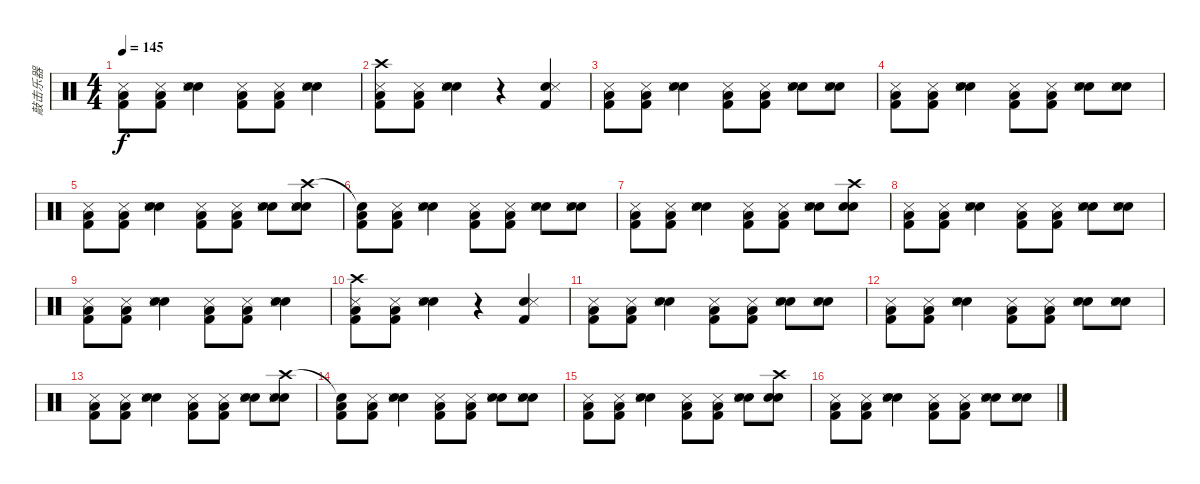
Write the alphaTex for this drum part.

\track ("敲击乐器" "敲击乐器") {instrument percussion}
\staff {score}
\articulation defaults
\ts (4 4)
\tempo 145
\clef neutral
\ks c
("Low Floor Tom (hit)" "Kick (hit) 2" "Snare (side stick) 3").8{dy f} ("Low Floor Tom (hit)" "Kick (hit) 2" "Snare (side stick) 3").8 ("Snare (hit) 2" "Electric Snare (hit)" "Snare (side stick) 3").4 ("Low Floor Tom (hit)" "Kick (hit) 2" "Snare (side stick) 3").8 ("Low Floor Tom (hit)" "Kick (hit) 2" "Snare (side stick) 3").8 ("Snare (hit) 2" "Electric Snare (hit)" "Snare (side stick) 3").4 |
("Low Floor Tom (hit)" "Kick (hit) 2" "Snare (side stick) 3" "Crash high (hit)").8 ("Low Floor Tom (hit)" "Kick (hit) 2" "Snare (side stick) 3").8 ("Snare (hit) 2" "Electric Snare (hit)" "Snare (side stick) 3").4 r.4 ("Kick (hit) 2" "Electric Snare (hit)" "Snare (side stick) 3").4 |
("Low Floor Tom (hit)" "Kick (hit) 2" "Snare (side stick) 3").8 ("Low Floor Tom (hit)" "Kick (hit) 2" "Snare (side stick) 3").8 ("Snare (hit) 2" "Electric Snare (hit)" "Snare (side stick) 3").4 ("Low Floor Tom (hit)" "Kick (hit) 2" "Snare (side stick) 3").8 ("Low Floor Tom (hit)" "Kick (hit) 2" "Snare (side stick) 3").8 ("Snare (hit) 2" "Electric Snare (hit)" "Snare (side stick) 3").8 ("Snare (hit) 2" "Electric Snare (hit)" "Snare (side stick) 3").8 |
("Low Floor Tom (hit)" "Kick (hit) 2" "Snare (side stick) 3").8 ("Low Floor Tom (hit)" "Kick (hit) 2" "Snare (side stick) 3").8 ("Snare (hit) 2" "Electric Snare (hit)" "Snare (side stick) 3").4 ("Low Floor Tom (hit)" "Kick (hit) 2" "Snare (side stick) 3").8 ("Low Floor Tom (hit)" "Kick (hit) 2" "Snare (side stick) 3").8 ("Snare (hit) 2" "Electric Snare (hit)" "Snare (side stick) 3").8 ("Snare (hit) 2" "Electric Snare (hit)" "Snare (side stick) 3").8 |
("Low Floor Tom (hit)" "Kick (hit) 2" "Snare (side stick) 3").8 ("Low Floor Tom (hit)" "Kick (hit) 2" "Snare (side stick) 3").8 ("Snare (hit) 2" "Electric Snare (hit)" "Snare (side stick) 3").4 ("Low Floor Tom (hit)" "Kick (hit) 2" "Snare (side stick) 3").8 ("Low Floor Tom (hit)" "Kick (hit) 2" "Snare (side stick) 3").8 ("Snare (hit) 2" "Electric Snare (hit)" "Snare (side stick) 3").8 ("Snare (hit) 2" "Snare (side stick) 3" "Crash high (hit)" "Electric Snare (hit)").8 |
("Low Floor Tom (hit)" "Kick (hit) 2" "Snare (hit)"{t}).8 ("Low Floor Tom (hit)" "Kick (hit) 2" "Snare (side stick) 3").8 ("Snare (hit) 2" "Electric Snare (hit)" "Snare (side stick) 3").4 ("Low Floor Tom (hit)" "Kick (hit) 2" "Snare (side stick) 3").8 ("Low Floor Tom (hit)" "Kick (hit) 2" "Snare (side stick) 3").8 ("Snare (hit) 2" "Electric Snare (hit)" "Snare (side stick) 3").8 ("Snare (hit) 2" "Electric Snare (hit)" "Snare (side stick) 3").8 |
("Low Floor Tom (hit)" "Kick (hit) 2" "Snare (side stick) 3").8 ("Low Floor Tom (hit)" "Kick (hit) 2" "Snare (side stick) 3").8 ("Snare (hit) 2" "Electric Snare (hit)" "Snare (side stick) 3").4 ("Low Floor Tom (hit)" "Kick (hit) 2" "Snare (side stick) 3").8 ("Low Floor Tom (hit)" "Kick (hit) 2" "Snare (side stick) 3").8 ("Snare (hit) 2" "Electric Snare (hit)" "Snare (side stick) 3").8 ("Snare (hit) 2" "Electric Snare (hit)" "Crash high (hit)").8 |
("Low Floor Tom (hit)" "Kick (hit) 2" "Snare (side stick) 3").8 ("Low Floor Tom (hit)" "Kick (hit) 2" "Snare (side stick) 3").8 ("Snare (hit) 2" "Electric Snare (hit)" "Snare (side stick) 3").4 ("Low Floor Tom (hit)" "Kick (hit) 2" "Snare (side stick) 3").8 ("Low Floor Tom (hit)" "Kick (hit) 2" "Snare (side stick) 3").8 ("Snare (hit) 2" "Electric Snare (hit)" "Snare (side stick) 3").8 ("Snare (hit) 2" "Electric Snare (hit)" "Snare (side stick) 3").8 |
("Low Floor Tom (hit)" "Kick (hit) 2" "Snare (side stick) 3").8 ("Low Floor Tom (hit)" "Kick (hit) 2" "Snare (side stick) 3").8 ("Snare (hit) 2" "Electric Snare (hit)" "Snare (side stick) 3").4 ("Low Floor Tom (hit)" "Kick (hit) 2" "Snare (side stick) 3").8 ("Low Floor Tom (hit)" "Kick (hit) 2" "Snare (side stick) 3").8 ("Snare (hit) 2" "Electric Snare (hit)" "Snare (side stick) 3").4 |
("Low Floor Tom (hit)" "Kick (hit) 2" "Snare (side stick) 3" "Crash high (hit)").8 ("Low Floor Tom (hit)" "Kick (hit) 2" "Snare (side stick) 3").8 ("Snare (hit) 2" "Electric Snare (hit)" "Snare (side stick) 3").4 r.4 ("Kick (hit) 2" "Electric Snare (hit)" "Snare (side stick) 3").4 |
("Low Floor Tom (hit)" "Kick (hit) 2" "Snare (side stick) 3").8 ("Low Floor Tom (hit)" "Kick (hit) 2" "Snare (side stick) 3").8 ("Snare (hit) 2" "Electric Snare (hit)" "Snare (side stick) 3").4 ("Low Floor Tom (hit)" "Kick (hit) 2" "Snare (side stick) 3").8 ("Low Floor Tom (hit)" "Kick (hit) 2" "Snare (side stick) 3").8 ("Snare (hit) 2" "Electric Snare (hit)" "Snare (side stick) 3").8 ("Snare (hit) 2" "Electric Snare (hit)" "Snare (side stick) 3").8 |
("Low Floor Tom (hit)" "Kick (hit) 2" "Snare (side stick) 3").8 ("Low Floor Tom (hit)" "Kick (hit) 2" "Snare (side stick) 3").8 ("Snare (hit) 2" "Electric Snare (hit)" "Snare (side stick) 3").4 ("Low Floor Tom (hit)" "Kick (hit) 2" "Snare (side stick) 3").8 ("Low Floor Tom (hit)" "Kick (hit) 2" "Snare (side stick) 3").8 ("Snare (hit) 2" "Electric Snare (hit)" "Snare (side stick) 3").8 ("Snare (hit) 2" "Electric Snare (hit)" "Snare (side stick) 3").8 |
("Low Floor Tom (hit)" "Kick (hit) 2" "Snare (side stick) 3").8 ("Low Floor Tom (hit)" "Kick (hit) 2" "Snare (side stick) 3").8 ("Snare (hit) 2" "Electric Snare (hit)" "Snare (side stick) 3").4 ("Low Floor Tom (hit)" "Kick (hit) 2" "Snare (side stick) 3").8 ("Low Floor Tom (hit)" "Kick (hit) 2" "Snare (side stick) 3").8 ("Snare (hit) 2" "Electric Snare (hit)" "Snare (side stick) 3").8 ("Snare (hit) 2" "Snare (side stick) 3" "Crash high (hit)" "Electric Snare (hit)").8 |
("Low Floor Tom (hit)" "Kick (hit) 2" "Snare (hit)"{t}).8 ("Low Floor Tom (hit)" "Kick (hit) 2" "Snare (side stick) 3").8 ("Snare (hit) 2" "Electric Snare (hit)" "Snare (side stick) 3").4 ("Low Floor Tom (hit)" "Kick (hit) 2" "Snare (side stick) 3").8 ("Low Floor Tom (hit)" "Kick (hit) 2" "Snare (side stick) 3").8 ("Snare (hit) 2" "Electric Snare (hit)" "Snare (side stick) 3").8 ("Snare (hit) 2" "Electric Snare (hit)" "Snare (side stick) 3").8 |
("Low Floor Tom (hit)" "Kick (hit) 2" "Snare (side stick) 3").8 ("Low Floor Tom (hit)" "Kick (hit) 2" "Snare (side stick) 3").8 ("Snare (hit) 2" "Electric Snare (hit)" "Snare (side stick) 3").4 ("Low Floor Tom (hit)" "Kick (hit) 2" "Snare (side stick) 3").8 ("Low Floor Tom (hit)" "Kick (hit) 2" "Snare (side stick) 3").8 ("Snare (hit) 2" "Electric Snare (hit)" "Snare (side stick) 3").8 ("Snare (hit) 2" "Electric Snare (hit)" "Crash high (hit)").8 |
("Low Floor Tom (hit)" "Kick (hit) 2" "Snare (side stick) 3").8 ("Low Floor Tom (hit)" "Kick (hit) 2" "Snare (side stick) 3").8 ("Snare (hit) 2" "Electric Snare (hit)" "Snare (side stick) 3").4 ("Low Floor Tom (hit)" "Kick (hit) 2" "Snare (side stick) 3").8 ("Low Floor Tom (hit)" "Kick (hit) 2" "Snare (side stick) 3").8 ("Snare (hit) 2" "Electric Snare (hit)" "Snare (side stick) 3").8 ("Snare (hit) 2" "Electric Snare (hit)" "Snare (side stick) 3").8
